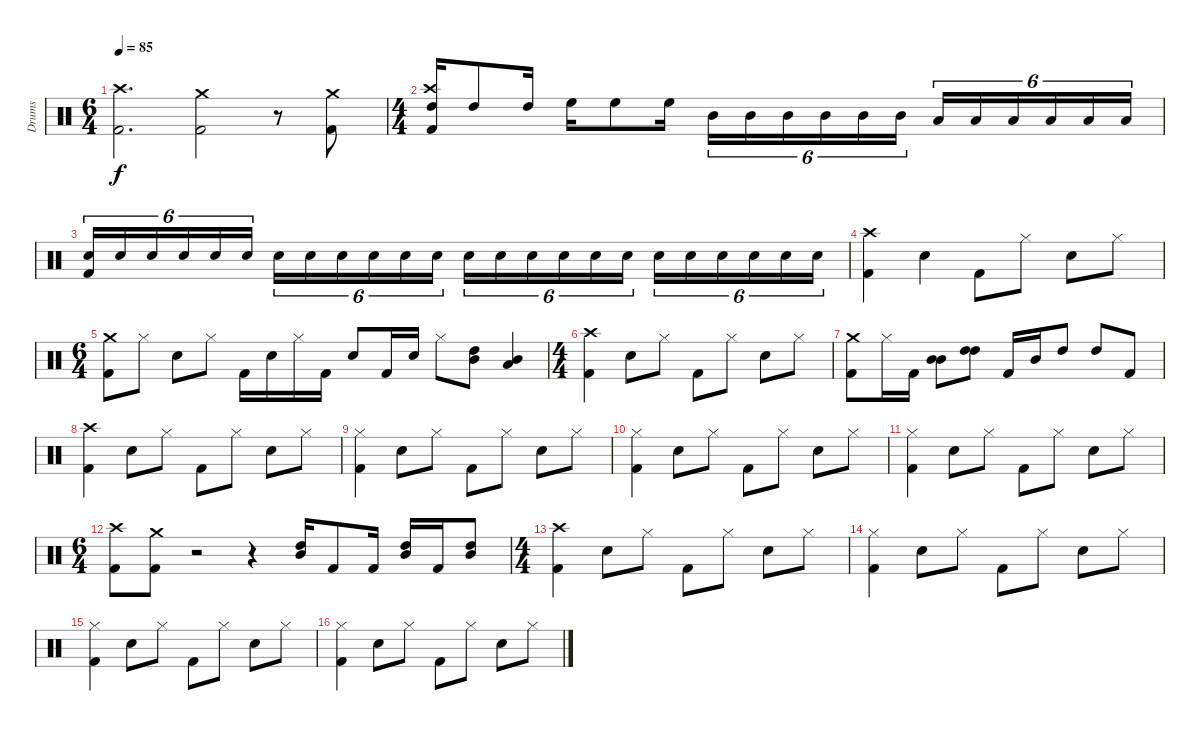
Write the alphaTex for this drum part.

\track ("Drums" "Drums") {instrument percussion}
\staff {score}
\articulation defaults
\ts (6 4)
\tempo 85
\clef neutral
\ks c
("Kick (hit) 2" "Crash high (hit)").2{d dy f} ("Kick (hit) 2" "Crash medium (hit)").2 r.8 ("Kick (hit) 2" "Crash medium (hit)").8 |
\ts (4 4)
("Kick (hit) 2" "High Tom (hit)" "Crash high (hit)").16 "High Tom (hit)".8 "High Tom (hit)".16 "High Floor Tom (hit)".16 "High Floor Tom (hit)".8 "High Floor Tom (hit)".16 "Mid Tom (hit)".16{tu (6 4)} "Mid Tom (hit)".16{tu (6 4)} "Mid Tom (hit)".16{tu (6 4)} "Mid Tom (hit)".16{tu (6 4)} "Mid Tom (hit)".16{tu (6 4)} "Mid Tom (hit)".16{tu (6 4)} "Low Tom (hit)".16{tu (6 4)} "Low Tom (hit)".16{tu (6 4)} "Low Tom (hit)".16{tu (6 4)} "Low Tom (hit)".16{tu (6 4)} "Low Tom (hit)".16{tu (6 4)} "Low Tom (hit)".16{tu (6 4)} |
("Kick (hit) 2" "Snare (hit) 2").16{tu (6 4)} "Snare (hit) 2".16{tu (6 4)} "Snare (hit) 2".16{tu (6 4)} "Snare (hit) 2".16{tu (6 4)} "Snare (hit) 2".16{tu (6 4)} "Snare (hit) 2".16{tu (6 4)} "Snare (hit) 2".16{tu (6 4)} "Snare (hit) 2".16{tu (6 4)} "Snare (hit) 2".16{tu (6 4)} "Snare (hit) 2".16{tu (6 4)} "Snare (hit) 2".16{tu (6 4)} "Snare (hit) 2".16{tu (6 4)} "Snare (hit) 2".16{tu (6 4)} "Snare (hit) 2".16{tu (6 4)} "Snare (hit) 2".16{tu (6 4)} "Snare (hit) 2".16{tu (6 4)} "Snare (hit) 2".16{tu (6 4)} "Snare (hit) 2".16{tu (6 4)} "Snare (hit) 2".16{tu (6 4)} "Snare (hit) 2".16{tu (6 4)} "Snare (hit) 2".16{tu (6 4)} "Snare (hit) 2".16{tu (6 4)} "Snare (hit) 2".16{tu (6 4)} "Snare (hit) 2".16{tu (6 4)} |
("Kick (hit) 2" "Crash high (hit)").4 "Snare (hit) 2".4 "Kick (hit) 2".8 "Hi-Hat (closed)".8 "Snare (hit) 2".8 "Hi-Hat (closed)".8 |
\ts (6 4)
("Kick (hit) 2" "Crash medium (hit)").8 "Hi-Hat (closed)".8 "Snare (hit) 2".8 "Hi-Hat (closed)".8 "Kick (hit) 2".16 "Snare (hit) 2".16 "Hi-Hat (closed)".16 "Kick (hit) 2".16 "Snare (hit) 2".8 "Kick (hit) 2".16 "Snare (hit) 2".16 "Hi-Hat (closed)".8 ("Mid Tom (hit)" "High Tom (hit)").8 ("Low Tom (hit)" "Mid Tom (hit)").4 |
\ts (4 4)
("Kick (hit) 2" "Crash high (hit)").4 "Snare (hit) 2".8 "Hi-Hat (closed)".8 "Kick (hit) 2".8 "Hi-Hat (closed)".8 "Snare (hit) 2".8 "Hi-Hat (closed)".8 |
("Kick (hit) 2" "Crash medium (hit)").8 "Hi-Hat (closed)".16 "Kick (hit) 2".16 ("Mid Tom (hit)" "Mid Tom (hit)").8 ("High Tom (hit)" "High Tom (hit)").8 "Kick (hit) 2".16 "Mid Tom (hit)".16 "High Tom (hit)".8 "High Tom (hit)".8 "Kick (hit) 2".8 |
("Kick (hit) 2" "Crash high (hit)").4 "Snare (hit) 2".8 "Hi-Hat (closed)".8 "Kick (hit) 2".8 "Hi-Hat (closed)".8 "Snare (hit) 2".8 "Hi-Hat (closed)".8 |
("Kick (hit) 2" "Hi-Hat (closed)").4 "Snare (hit) 2".8 "Hi-Hat (closed)".8 "Kick (hit) 2".8 "Hi-Hat (closed)".8 "Snare (hit) 2".8 "Hi-Hat (closed)".8 |
("Kick (hit) 2" "Hi-Hat (closed)").4 "Snare (hit) 2".8 "Hi-Hat (closed)".8 "Kick (hit) 2".8 "Hi-Hat (closed)".8 "Snare (hit) 2".8 "Hi-Hat (closed)".8 |
("Kick (hit) 2" "Hi-Hat (closed)").4 "Snare (hit) 2".8 "Hi-Hat (closed)".8 "Kick (hit) 2".8 "Hi-Hat (closed)".8 "Snare (hit) 2".8 "Hi-Hat (closed)".8 |
\ts (6 4)
("Kick (hit) 2" "Crash high (hit)").8 ("Kick (hit) 2" "Crash medium (hit)").8 r.2 r.4 ("Mid Tom (hit)" "High Tom (hit)").16 "Kick (hit) 2".8 "Kick (hit) 2".16 ("Mid Tom (hit)" "High Tom (hit)").16 "Kick (hit) 2".16 ("Mid Tom (hit)" "High Tom (hit)").8 |
\ts (4 4)
("Kick (hit) 2" "Crash high (hit)").4 "Snare (hit) 2".8 "Hi-Hat (closed)".8 "Kick (hit) 2".8 "Hi-Hat (closed)".8 "Snare (hit) 2".8 "Hi-Hat (closed)".8 |
("Kick (hit) 2" "Hi-Hat (closed)").4 "Snare (hit) 2".8 "Hi-Hat (closed)".8 "Kick (hit) 2".8 "Hi-Hat (closed)".8 "Snare (hit) 2".8 "Hi-Hat (closed)".8 |
("Kick (hit) 2" "Hi-Hat (closed)").4 "Snare (hit) 2".8 "Hi-Hat (closed)".8 "Kick (hit) 2".8 "Hi-Hat (closed)".8 "Snare (hit) 2".8 "Hi-Hat (closed)".8 |
("Kick (hit) 2" "Hi-Hat (closed)").4 "Snare (hit) 2".8 "Hi-Hat (closed)".8 "Kick (hit) 2".8 "Hi-Hat (closed)".8 "Snare (hit) 2".8 "Hi-Hat (closed)".8
